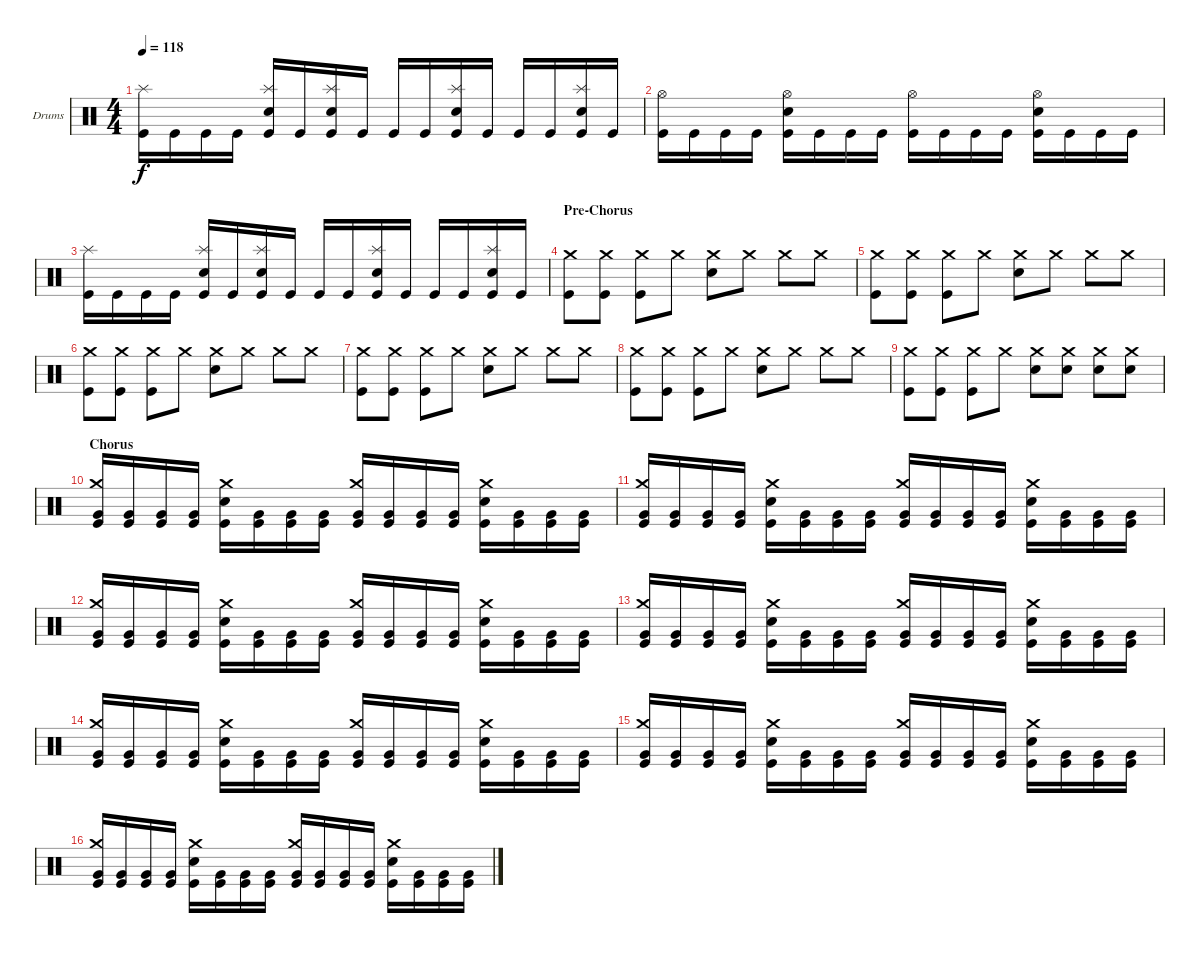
\bracketExtendMode groupsimilarinstruments
\firstSystemTrackNameOrientation horizontal
\otherSystemsTrackNameOrientation horizontal
\track ("Drumkit" "Drums") {solo instrument percussion}
\staff {score}
\articulation defaults
\ts (4 4)
\tempo 118
\clef neutral
\ks c
("Kick (hit)" "Splash (hit)").16{dy f} "Kick (hit)".16 "Kick (hit)".16 "Kick (hit)".16 ("Kick (hit)" "Splash (hit)" "Snare (hit) 2").16 "Kick (hit)".16 ("Kick (hit)" "Splash (hit)" "Snare (hit) 2").16 "Kick (hit)".16 "Kick (hit)".16 "Kick (hit)".16 ("Kick (hit)" "Splash (hit)" "Snare (hit) 2").16 "Kick (hit)".16 "Kick (hit)".16 "Kick (hit)".16 ("Kick (hit)" "Splash (hit)" "Snare (hit) 2").16 "Kick (hit)".16 |
("Kick (hit)" "Hi-Hat (open)").16 "Kick (hit)".16 "Kick (hit)".16 "Kick (hit)".16 ("Kick (hit)" "Snare (hit) 2" "Hi-Hat (open)").16 "Kick (hit)".16 "Kick (hit)".16 "Kick (hit)".16 ("Kick (hit)" "Hi-Hat (open)").16 "Kick (hit)".16 "Kick (hit)".16 "Kick (hit)".16 ("Kick (hit)" "Snare (hit) 2" "Hi-Hat (open)").16 "Kick (hit)".16 "Kick (hit)".16 "Kick (hit)".16 |
("Kick (hit)" "Splash (hit)").16 "Kick (hit)".16 "Kick (hit)".16 "Kick (hit)".16 ("Kick (hit)" "Splash (hit)" "Snare (hit) 2").16 "Kick (hit)".16 ("Kick (hit)" "Splash (hit)" "Snare (hit) 2").16 "Kick (hit)".16 "Kick (hit)".16 "Kick (hit)".16 ("Kick (hit)" "Splash (hit)" "Snare (hit) 2").16 "Kick (hit)".16 "Kick (hit)".16 "Kick (hit)".16 ("Kick (hit)" "Splash (hit)" "Snare (hit) 2").16 "Kick (hit)".16 |
\section ("" "Pre-Chorus")
("Kick (hit)" "Crash medium (hit)").8 ("Kick (hit)" "Crash medium (hit)").8 ("Kick (hit)" "Crash medium (hit)").8 "Crash medium (hit)".8 ("Snare (hit) 2" "Crash medium (hit)").8 "Crash medium (hit)".8 "Crash medium (hit)".8 "Crash medium (hit)".8 |
("Kick (hit)" "Crash medium (hit)").8 ("Kick (hit)" "Crash medium (hit)").8 ("Kick (hit)" "Crash medium (hit)").8 "Crash medium (hit)".8 ("Snare (hit) 2" "Crash medium (hit)").8 "Crash medium (hit)".8 "Crash medium (hit)".8 "Crash medium (hit)".8 |
("Kick (hit)" "Crash medium (hit)").8 ("Kick (hit)" "Crash medium (hit)").8 ("Kick (hit)" "Crash medium (hit)").8 "Crash medium (hit)".8 ("Snare (hit) 2" "Crash medium (hit)").8 "Crash medium (hit)".8 "Crash medium (hit)".8 "Crash medium (hit)".8 |
("Kick (hit)" "Crash medium (hit)").8 ("Kick (hit)" "Crash medium (hit)").8 ("Kick (hit)" "Crash medium (hit)").8 "Crash medium (hit)".8 ("Snare (hit) 2" "Crash medium (hit)").8 "Crash medium (hit)".8 "Crash medium (hit)".8 "Crash medium (hit)".8 |
("Kick (hit)" "Crash medium (hit)").8 ("Kick (hit)" "Crash medium (hit)").8 ("Kick (hit)" "Crash medium (hit)").8 "Crash medium (hit)".8 ("Snare (hit) 2" "Crash medium (hit)").8 "Crash medium (hit)".8 "Crash medium (hit)".8 "Crash medium (hit)".8 |
("Kick (hit)" "Crash medium (hit)").8 ("Kick (hit)" "Crash medium (hit)").8 ("Kick (hit)" "Crash medium (hit)").8 "Crash medium (hit)".8 ("Snare (hit) 2" "Crash medium (hit)").8 ("Snare (hit) 2" "Crash medium (hit)").8 ("Snare (hit) 2" "Crash medium (hit)").8 ("Snare (hit) 2" "Crash medium (hit)").8 |
\section ("" "Chorus")
("Kick (hit)" "Very Low Tom (hit)" "Crash medium (hit)").16 ("Kick (hit)" "Very Low Tom (hit)").16 ("Kick (hit)" "Very Low Tom (hit)").16 ("Kick (hit)" "Very Low Tom (hit)").16 ("Kick (hit)" "Snare (hit) 2" "Crash medium (hit)").16 ("Kick (hit)" "Very Low Tom (hit)").16 ("Kick (hit)" "Very Low Tom (hit)").16 ("Kick (hit)" "Very Low Tom (hit)").16 ("Kick (hit)" "Very Low Tom (hit)" "Crash medium (hit)").16 ("Kick (hit)" "Very Low Tom (hit)").16 ("Kick (hit)" "Very Low Tom (hit)").16 ("Kick (hit)" "Very Low Tom (hit)").16 ("Kick (hit)" "Snare (hit) 2" "Crash medium (hit)").16 ("Kick (hit)" "Very Low Tom (hit)").16 ("Kick (hit)" "Very Low Tom (hit)").16 ("Kick (hit)" "Very Low Tom (hit)").16 |
("Kick (hit)" "Very Low Tom (hit)" "Crash medium (hit)").16 ("Kick (hit)" "Very Low Tom (hit)").16 ("Kick (hit)" "Very Low Tom (hit)").16 ("Kick (hit)" "Very Low Tom (hit)").16 ("Kick (hit)" "Snare (hit) 2" "Crash medium (hit)").16 ("Kick (hit)" "Very Low Tom (hit)").16 ("Kick (hit)" "Very Low Tom (hit)").16 ("Kick (hit)" "Very Low Tom (hit)").16 ("Kick (hit)" "Very Low Tom (hit)" "Crash medium (hit)").16 ("Kick (hit)" "Very Low Tom (hit)").16 ("Kick (hit)" "Very Low Tom (hit)").16 ("Kick (hit)" "Very Low Tom (hit)").16 ("Kick (hit)" "Snare (hit) 2" "Crash medium (hit)").16 ("Kick (hit)" "Very Low Tom (hit)").16 ("Kick (hit)" "Very Low Tom (hit)").16 ("Kick (hit)" "Very Low Tom (hit)").16 |
("Kick (hit)" "Very Low Tom (hit)" "Crash medium (hit)").16 ("Kick (hit)" "Very Low Tom (hit)").16 ("Kick (hit)" "Very Low Tom (hit)").16 ("Kick (hit)" "Very Low Tom (hit)").16 ("Kick (hit)" "Snare (hit) 2" "Crash medium (hit)").16 ("Kick (hit)" "Very Low Tom (hit)").16 ("Kick (hit)" "Very Low Tom (hit)").16 ("Kick (hit)" "Very Low Tom (hit)").16 ("Kick (hit)" "Very Low Tom (hit)" "Crash medium (hit)").16 ("Kick (hit)" "Very Low Tom (hit)").16 ("Kick (hit)" "Very Low Tom (hit)").16 ("Kick (hit)" "Very Low Tom (hit)").16 ("Kick (hit)" "Snare (hit) 2" "Crash medium (hit)").16 ("Kick (hit)" "Very Low Tom (hit)").16 ("Kick (hit)" "Very Low Tom (hit)").16 ("Kick (hit)" "Very Low Tom (hit)").16 |
("Kick (hit)" "Very Low Tom (hit)" "Crash medium (hit)").16 ("Kick (hit)" "Very Low Tom (hit)").16 ("Kick (hit)" "Very Low Tom (hit)").16 ("Kick (hit)" "Very Low Tom (hit)").16 ("Kick (hit)" "Snare (hit) 2" "Crash medium (hit)").16 ("Kick (hit)" "Very Low Tom (hit)").16 ("Kick (hit)" "Very Low Tom (hit)").16 ("Kick (hit)" "Very Low Tom (hit)").16 ("Kick (hit)" "Very Low Tom (hit)" "Crash medium (hit)").16 ("Kick (hit)" "Very Low Tom (hit)").16 ("Kick (hit)" "Very Low Tom (hit)").16 ("Kick (hit)" "Very Low Tom (hit)").16 ("Kick (hit)" "Snare (hit) 2" "Crash medium (hit)").16 ("Kick (hit)" "Very Low Tom (hit)").16 ("Kick (hit)" "Very Low Tom (hit)").16 ("Kick (hit)" "Very Low Tom (hit)").16 |
("Kick (hit)" "Very Low Tom (hit)" "Crash medium (hit)").16 ("Kick (hit)" "Very Low Tom (hit)").16 ("Kick (hit)" "Very Low Tom (hit)").16 ("Kick (hit)" "Very Low Tom (hit)").16 ("Kick (hit)" "Snare (hit) 2" "Crash medium (hit)").16 ("Kick (hit)" "Very Low Tom (hit)").16 ("Kick (hit)" "Very Low Tom (hit)").16 ("Kick (hit)" "Very Low Tom (hit)").16 ("Kick (hit)" "Very Low Tom (hit)" "Crash medium (hit)").16 ("Kick (hit)" "Very Low Tom (hit)").16 ("Kick (hit)" "Very Low Tom (hit)").16 ("Kick (hit)" "Very Low Tom (hit)").16 ("Kick (hit)" "Snare (hit) 2" "Crash medium (hit)").16 ("Kick (hit)" "Very Low Tom (hit)").16 ("Kick (hit)" "Very Low Tom (hit)").16 ("Kick (hit)" "Very Low Tom (hit)").16 |
("Kick (hit)" "Very Low Tom (hit)" "Crash medium (hit)").16 ("Kick (hit)" "Very Low Tom (hit)").16 ("Kick (hit)" "Very Low Tom (hit)").16 ("Kick (hit)" "Very Low Tom (hit)").16 ("Kick (hit)" "Snare (hit) 2" "Crash medium (hit)").16 ("Kick (hit)" "Very Low Tom (hit)").16 ("Kick (hit)" "Very Low Tom (hit)").16 ("Kick (hit)" "Very Low Tom (hit)").16 ("Kick (hit)" "Very Low Tom (hit)" "Crash medium (hit)").16 ("Kick (hit)" "Very Low Tom (hit)").16 ("Kick (hit)" "Very Low Tom (hit)").16 ("Kick (hit)" "Very Low Tom (hit)").16 ("Kick (hit)" "Snare (hit) 2" "Crash medium (hit)").16 ("Kick (hit)" "Very Low Tom (hit)").16 ("Kick (hit)" "Very Low Tom (hit)").16 ("Kick (hit)" "Very Low Tom (hit)").16 |
("Kick (hit)" "Very Low Tom (hit)" "Crash medium (hit)").16 ("Kick (hit)" "Very Low Tom (hit)").16 ("Kick (hit)" "Very Low Tom (hit)").16 ("Kick (hit)" "Very Low Tom (hit)").16 ("Kick (hit)" "Snare (hit) 2" "Crash medium (hit)").16 ("Kick (hit)" "Very Low Tom (hit)").16 ("Kick (hit)" "Very Low Tom (hit)").16 ("Kick (hit)" "Very Low Tom (hit)").16 ("Kick (hit)" "Very Low Tom (hit)" "Crash medium (hit)").16 ("Kick (hit)" "Very Low Tom (hit)").16 ("Kick (hit)" "Very Low Tom (hit)").16 ("Kick (hit)" "Very Low Tom (hit)").16 ("Kick (hit)" "Snare (hit) 2" "Crash medium (hit)").16 ("Kick (hit)" "Very Low Tom (hit)").16 ("Kick (hit)" "Very Low Tom (hit)").16 ("Kick (hit)" "Very Low Tom (hit)").16
